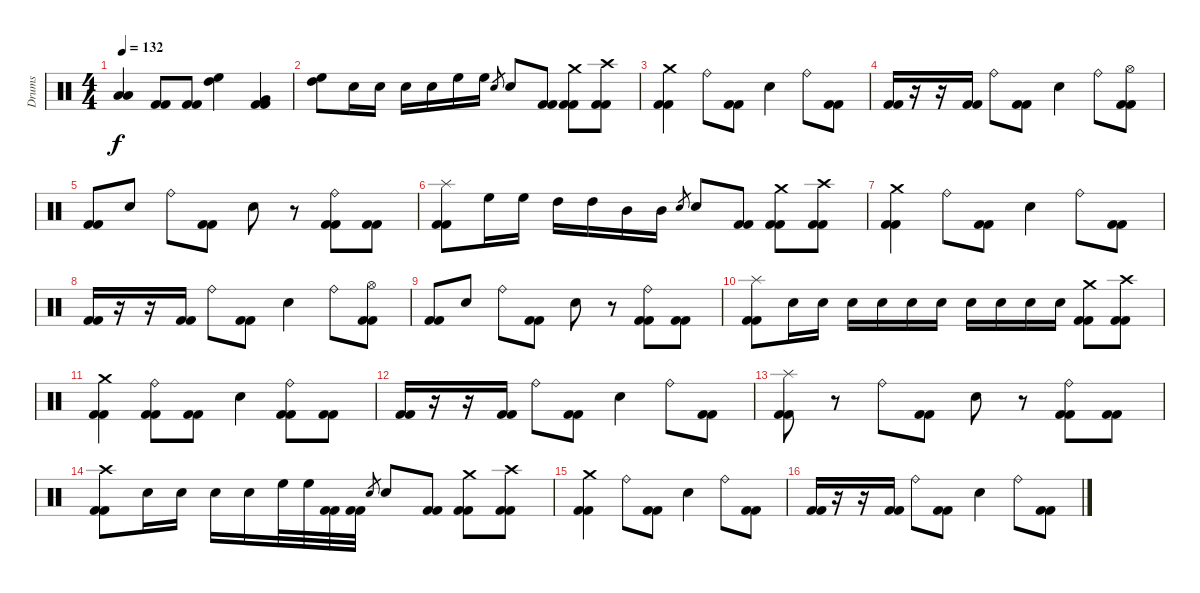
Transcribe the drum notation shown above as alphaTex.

\track ("Drums" "Drums") {instrument percussion}
\staff {score}
\articulation defaults
\ts (4 4)
\tempo 132
\clef neutral
\ks c
("Low Tom (hit)" "Low Tom (hit)").4{dy f} ("Kick (hit) 2" "Kick (hit) 2").8 ("Kick (hit) 2" "Kick (hit) 2").8 ("High Floor Tom (hit)" "High Tom (hit)").4 ("Very Low Tom (hit)" "Kick (hit) 2" "Kick (hit) 2").4 |
("High Floor Tom (hit)" "High Tom (hit)").8 "Electric Snare (hit)".16 "Electric Snare (hit)".16 "Electric Snare (hit)".16 "Electric Snare (hit)".16 "High Floor Tom (hit)".16 "High Floor Tom (hit)".16 "Electric Snare (hit)".8{gr} "Electric Snare (hit)".8 ("Kick (hit) 2" "Kick (hit) 2").8 ("Crash medium (hit)" "Kick (hit) 2" "Kick (hit) 2").8 ("Crash high (hit)" "Kick (hit) 2" "Kick (hit) 2").8 |
("Crash medium (hit)" "Kick (hit) 2" "Kick (hit) 2").4 "Ride (bell)".8 ("Kick (hit) 2" "Kick (hit) 2").8 "Electric Snare (hit)".4 "Ride (bell)".8 ("Kick (hit) 2" "Kick (hit) 2").8 |
("Kick (hit) 2" "Kick (hit) 2").16 r.16 r.16 ("Kick (hit) 2" "Kick (hit) 2").16 "Ride (bell)".8 ("Kick (hit) 2" "Kick (hit) 2").8 "Electric Snare (hit)".4 "Ride (bell)".8 ("Hi-Hat (open)" "Kick (hit) 2" "Kick (hit) 2").8 |
("Kick (hit) 2" "Kick (hit) 2").8 "Electric Snare (hit)".8 "Ride (bell)".8 ("Kick (hit) 2" "Kick (hit) 2").8 "Electric Snare (hit)".8 r.8 ("Ride (bell)" "Kick (hit) 2" "Kick (hit) 2").8 ("Kick (hit) 2" "Kick (hit) 2").8 |
("Splash (hit)" "Kick (hit) 2" "Kick (hit) 2").8 "High Floor Tom (hit)".16 "High Floor Tom (hit)".16 "High Tom (hit)".16 "High Tom (hit)".16 "Mid Tom (hit)".16 "Mid Tom (hit)".16 "Electric Snare (hit)".8{gr} "Electric Snare (hit)".8 ("Kick (hit) 2" "Kick (hit) 2").8 ("Crash medium (hit)" "Kick (hit) 2" "Kick (hit) 2").8 ("Crash high (hit)" "Kick (hit) 2" "Kick (hit) 2").8 |
("Crash medium (hit)" "Kick (hit) 2" "Kick (hit) 2").4 "Ride (bell)".8 ("Kick (hit) 2" "Kick (hit) 2").8 "Electric Snare (hit)".4 "Ride (bell)".8 ("Kick (hit) 2" "Kick (hit) 2").8 |
("Kick (hit) 2" "Kick (hit) 2").16 r.16 r.16 ("Kick (hit) 2" "Kick (hit) 2").16 "Ride (bell)".8 ("Kick (hit) 2" "Kick (hit) 2").8 "Electric Snare (hit)".4 "Ride (bell)".8 ("Hi-Hat (open)" "Kick (hit) 2" "Kick (hit) 2").8 |
("Kick (hit) 2" "Kick (hit) 2").8 "Electric Snare (hit)".8 "Ride (bell)".8 ("Kick (hit) 2" "Kick (hit) 2").8 "Electric Snare (hit)".8 r.8 ("Ride (bell)" "Kick (hit) 2" "Kick (hit) 2").8 ("Kick (hit) 2" "Kick (hit) 2").8 |
("Splash (hit)" "Kick (hit) 2" "Kick (hit) 2").8 "Electric Snare (hit)".16 "Electric Snare (hit)".16 "Electric Snare (hit)".16 "Electric Snare (hit)".16 "Electric Snare (hit)".16 "Electric Snare (hit)".16 "Electric Snare (hit)".16 "Electric Snare (hit)".16 "Electric Snare (hit)".16 "Electric Snare (hit)".16 ("Crash medium (hit)" "Kick (hit) 2" "Kick (hit) 2").8 ("Crash high (hit)" "Kick (hit) 2" "Kick (hit) 2").8 |
("Crash medium (hit)" "Kick (hit) 2" "Kick (hit) 2").4 ("Ride (bell)" "Kick (hit) 2" "Kick (hit) 2").8 ("Kick (hit) 2" "Kick (hit) 2").8 "Electric Snare (hit)".4 ("Ride (bell)" "Kick (hit) 2" "Kick (hit) 2").8 ("Kick (hit) 2" "Kick (hit) 2").8 |
("Kick (hit) 2" "Kick (hit) 2").16 r.16 r.16 ("Kick (hit) 2" "Kick (hit) 2").16 "Ride (bell)".8 ("Kick (hit) 2" "Kick (hit) 2").8 "Electric Snare (hit)".4 "Ride (bell)".8 ("Kick (hit) 2" "Kick (hit) 2").8 |
("Splash (hit)" "Kick (hit) 2" "Kick (hit) 2").8 r.8 "Ride (bell)".8 ("Kick (hit) 2" "Kick (hit) 2").8 "Electric Snare (hit)".8 r.8 ("Ride (bell)" "Kick (hit) 2" "Kick (hit) 2").8 ("Kick (hit) 2" "Kick (hit) 2").8 |
("Crash high (hit)" "Kick (hit) 2" "Kick (hit) 2").8 "Electric Snare (hit)".16 "Electric Snare (hit)".16 "Electric Snare (hit)".16 "Electric Snare (hit)".16 "High Floor Tom (hit)".32 "High Floor Tom (hit)".32 ("Kick (hit) 2" "Kick (hit) 2").32 ("Kick (hit) 2" "Kick (hit) 2").32 "Electric Snare (hit)".8{gr} "Electric Snare (hit)".8 ("Kick (hit) 2" "Kick (hit) 2").8 ("Crash medium (hit)" "Kick (hit) 2" "Kick (hit) 2").8 ("Crash high (hit)" "Kick (hit) 2" "Kick (hit) 2").8 |
("Crash medium (hit)" "Kick (hit) 2" "Kick (hit) 2").4 "Ride (bell)".8 ("Kick (hit) 2" "Kick (hit) 2").8 "Electric Snare (hit)".4 "Ride (bell)".8 ("Kick (hit) 2" "Kick (hit) 2").8 |
("Kick (hit) 2" "Kick (hit) 2").16 r.16 r.16 ("Kick (hit) 2" "Kick (hit) 2").16 "Ride (bell)".8 ("Kick (hit) 2" "Kick (hit) 2").8 "Electric Snare (hit)".4 "Ride (bell)".8 ("Kick (hit) 2" "Kick (hit) 2").8
